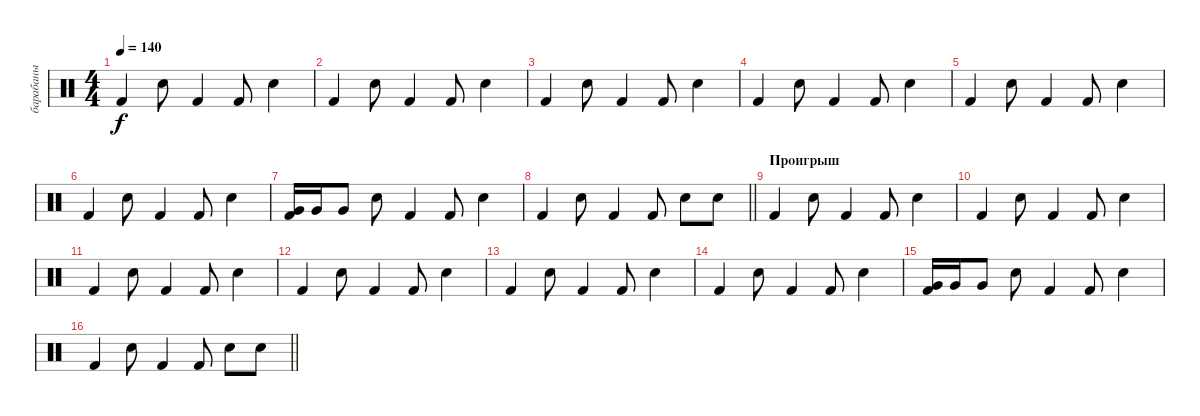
\track ("барабаны" "барабаны") {instrument percussion}
\staff {score}
\articulation defaults
\ts (4 4)
\tempo 140
\clef neutral
\ks c "Kick (hit) 2".4{dy f} "Electric Snare (hit)".8 "Kick (hit) 2".4 "Kick (hit) 2".8 "Electric Snare (hit)".4
|
"Kick (hit) 2".4 "Electric Snare (hit)".8 "Kick (hit) 2".4 "Kick (hit) 2".8 "Electric Snare (hit)".4 |
"Kick (hit) 2".4 "Electric Snare (hit)".8 "Kick (hit) 2".4 "Kick (hit) 2".8 "Electric Snare (hit)".4 |
"Kick (hit) 2".4 "Electric Snare (hit)".8 "Kick (hit) 2".4 "Kick (hit) 2".8 "Electric Snare (hit)".4 |
"Kick (hit) 2".4 "Electric Snare (hit)".8 "Kick (hit) 2".4 "Kick (hit) 2".8 "Electric Snare (hit)".4 |
"Kick (hit) 2".4 "Electric Snare (hit)".8 "Kick (hit) 2".4 "Kick (hit) 2".8 "Electric Snare (hit)".4 |
("Kick (hit) 2" "Very Low Tom (hit)").16 "Very Low Tom (hit)".16 "Very Low Tom (hit)".8 "Electric Snare (hit)".8 "Kick (hit) 2".4 "Kick (hit) 2".8 "Electric Snare (hit)".4 |
\barLineRight lightlight "Kick (hit) 2".4 "Electric Snare (hit)".8 "Kick (hit) 2".4 "Kick (hit) 2".8 "Electric Snare (hit)".8 "Electric Snare (hit)".8
|
\section ("" "Проигрыш")
"Kick (hit) 2".4 "Electric Snare (hit)".8 "Kick (hit) 2".4 "Kick (hit) 2".8 "Electric Snare (hit)".4 |
"Kick (hit) 2".4 "Electric Snare (hit)".8 "Kick (hit) 2".4 "Kick (hit) 2".8 "Electric Snare (hit)".4 |
"Kick (hit) 2".4 "Electric Snare (hit)".8 "Kick (hit) 2".4 "Kick (hit) 2".8 "Electric Snare (hit)".4 |
"Kick (hit) 2".4 "Electric Snare (hit)".8 "Kick (hit) 2".4 "Kick (hit) 2".8 "Electric Snare (hit)".4 |
"Kick (hit) 2".4 "Electric Snare (hit)".8 "Kick (hit) 2".4 "Kick (hit) 2".8 "Electric Snare (hit)".4 |
"Kick (hit) 2".4 "Electric Snare (hit)".8 "Kick (hit) 2".4 "Kick (hit) 2".8 "Electric Snare (hit)".4 |
("Kick (hit) 2" "Very Low Tom (hit)").16 "Very Low Tom (hit)".16 "Very Low Tom (hit)".8 "Electric Snare (hit)".8 "Kick (hit) 2".4 "Kick (hit) 2".8 "Electric Snare (hit)".4 |
\barLineRight lightlight "Kick (hit) 2".4 "Electric Snare (hit)".8 "Kick (hit) 2".4 "Kick (hit) 2".8 "Electric Snare (hit)".8 "Electric Snare (hit)".8
